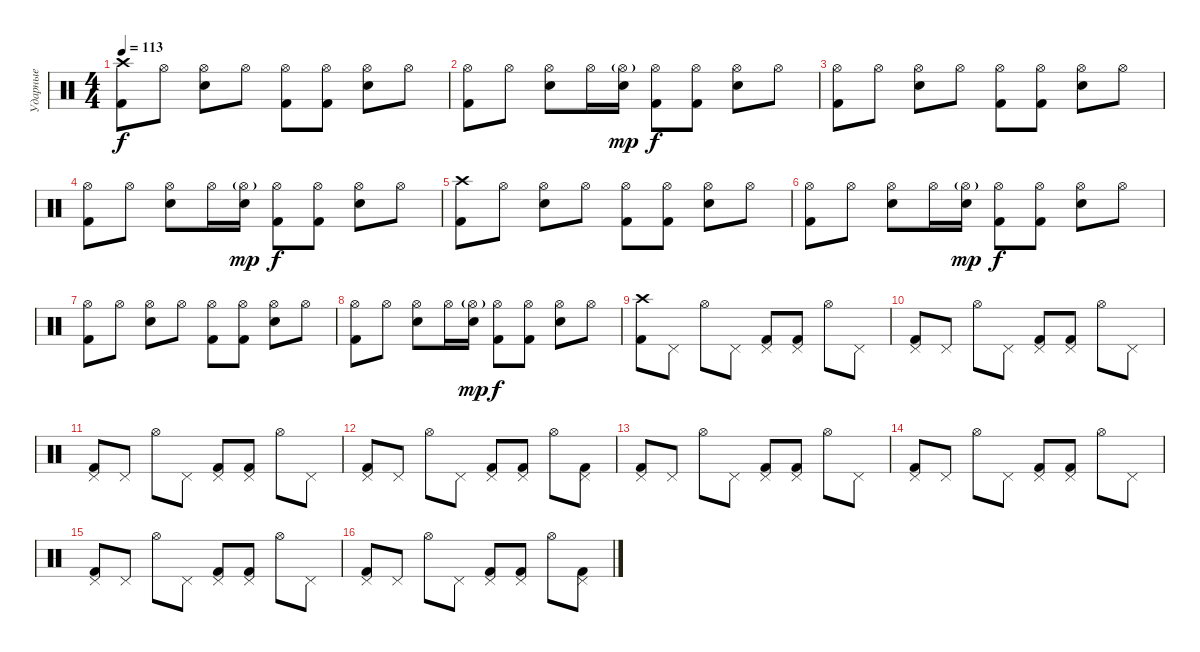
\track ("Ударные" "Ударные") {instrument percussion}
\staff {score}
\articulation defaults
\ts (4 4)
\tempo 113
\clef neutral
\ks c
("Crash high (hit)" "Kick (hit) 2").8{dy f} "Hi-Hat (open)".8 ("Hi-Hat (open)" "Snare (hit) 2").8 "Hi-Hat (open)".8 ("Hi-Hat (open)" "Kick (hit) 2").8 ("Hi-Hat (open)" "Kick (hit) 2").8 ("Hi-Hat (open)" "Snare (hit) 2").8 "Hi-Hat (open)".8 |
("Hi-Hat (open)" "Kick (hit) 2").8 "Hi-Hat (open)".8 ("Hi-Hat (open)" "Snare (hit) 2").8 "Hi-Hat (open)".16 ("Hi-Hat (open)"{g} "Snare (hit) 2").16{dy mp} ("Hi-Hat (open)" "Kick (hit) 2").8{dy f} ("Hi-Hat (open)" "Kick (hit) 2").8 ("Hi-Hat (open)" "Snare (hit) 2").8 "Hi-Hat (open)".8 |
("Hi-Hat (open)" "Kick (hit) 2").8 "Hi-Hat (open)".8 ("Hi-Hat (open)" "Snare (hit) 2").8 "Hi-Hat (open)".8 ("Hi-Hat (open)" "Kick (hit) 2").8 ("Hi-Hat (open)" "Kick (hit) 2").8 ("Hi-Hat (open)" "Snare (hit) 2").8 "Hi-Hat (open)".8 |
("Hi-Hat (open)" "Kick (hit) 2").8 "Hi-Hat (open)".8 ("Hi-Hat (open)" "Snare (hit) 2").8 "Hi-Hat (open)".16 ("Hi-Hat (open)"{g} "Snare (hit) 2").16{dy mp} ("Hi-Hat (open)" "Kick (hit) 2").8{dy f} ("Hi-Hat (open)" "Kick (hit) 2").8 ("Hi-Hat (open)" "Snare (hit) 2").8 "Hi-Hat (open)".8 |
("Crash high (hit)" "Kick (hit) 2").8 "Hi-Hat (open)".8 ("Hi-Hat (open)" "Snare (hit) 2").8 "Hi-Hat (open)".8 ("Hi-Hat (open)" "Kick (hit) 2").8 ("Hi-Hat (open)" "Kick (hit) 2").8 ("Hi-Hat (open)" "Snare (hit) 2").8 "Hi-Hat (open)".8 |
("Hi-Hat (open)" "Kick (hit) 2").8 "Hi-Hat (open)".8 ("Hi-Hat (open)" "Snare (hit) 2").8 "Hi-Hat (open)".16 ("Hi-Hat (open)"{g} "Snare (hit) 2").16{dy mp} ("Hi-Hat (open)" "Kick (hit) 2").8{dy f} ("Hi-Hat (open)" "Kick (hit) 2").8 ("Hi-Hat (open)" "Snare (hit) 2").8 "Hi-Hat (open)".8 |
("Hi-Hat (open)" "Kick (hit) 2").8 "Hi-Hat (open)".8 ("Hi-Hat (open)" "Snare (hit) 2").8 "Hi-Hat (open)".8 ("Hi-Hat (open)" "Kick (hit) 2").8 ("Hi-Hat (open)" "Kick (hit) 2").8 ("Hi-Hat (open)" "Snare (hit) 2").8 "Hi-Hat (open)".8 |
("Hi-Hat (open)" "Kick (hit) 2").8 "Hi-Hat (open)".8 ("Hi-Hat (open)" "Snare (hit) 2").8 "Hi-Hat (open)".16 ("Hi-Hat (open)"{g} "Snare (hit) 2").16{dy mp} ("Hi-Hat (open)" "Kick (hit) 2").8{dy f} ("Hi-Hat (open)" "Kick (hit) 2").8 ("Hi-Hat (open)" "Snare (hit) 2").8 "Hi-Hat (open)".8 |
("Crash high (hit)" "Kick (hit) 2").8 "Pedal Hi-Hat (hit)".8 "Hi-Hat (open)".8 "Pedal Hi-Hat (hit)".8 ("Pedal Hi-Hat (hit)" "Kick (hit) 2").8 ("Pedal Hi-Hat (hit)" "Kick (hit) 2").8 "Hi-Hat (open)".8 "Pedal Hi-Hat (hit)".8 |
("Pedal Hi-Hat (hit)" "Kick (hit) 2").8 "Pedal Hi-Hat (hit)".8 "Hi-Hat (open)".8 "Pedal Hi-Hat (hit)".8 ("Pedal Hi-Hat (hit)" "Kick (hit) 2").8 ("Pedal Hi-Hat (hit)" "Kick (hit) 2").8 "Hi-Hat (open)".8 "Pedal Hi-Hat (hit)".8 |
("Pedal Hi-Hat (hit)" "Kick (hit) 2").8 "Pedal Hi-Hat (hit)".8 "Hi-Hat (open)".8 "Pedal Hi-Hat (hit)".8 ("Pedal Hi-Hat (hit)" "Kick (hit) 2").8 ("Pedal Hi-Hat (hit)" "Kick (hit) 2").8 "Hi-Hat (open)".8 "Pedal Hi-Hat (hit)".8 |
("Pedal Hi-Hat (hit)" "Kick (hit) 2").8 "Pedal Hi-Hat (hit)".8 "Hi-Hat (open)".8 "Pedal Hi-Hat (hit)".8 ("Pedal Hi-Hat (hit)" "Kick (hit) 2").8 ("Pedal Hi-Hat (hit)" "Kick (hit) 2").8 "Hi-Hat (open)".8 ("Pedal Hi-Hat (hit)" "Kick (hit) 2").8 |
("Pedal Hi-Hat (hit)" "Kick (hit) 2").8 "Pedal Hi-Hat (hit)".8 "Hi-Hat (open)".8 "Pedal Hi-Hat (hit)".8 ("Pedal Hi-Hat (hit)" "Kick (hit) 2").8 ("Pedal Hi-Hat (hit)" "Kick (hit) 2").8 "Hi-Hat (open)".8 "Pedal Hi-Hat (hit)".8 |
("Pedal Hi-Hat (hit)" "Kick (hit) 2").8 "Pedal Hi-Hat (hit)".8 "Hi-Hat (open)".8 "Pedal Hi-Hat (hit)".8 ("Pedal Hi-Hat (hit)" "Kick (hit) 2").8 ("Pedal Hi-Hat (hit)" "Kick (hit) 2").8 "Hi-Hat (open)".8 "Pedal Hi-Hat (hit)".8 |
("Pedal Hi-Hat (hit)" "Kick (hit) 2").8 "Pedal Hi-Hat (hit)".8 "Hi-Hat (open)".8 "Pedal Hi-Hat (hit)".8 ("Pedal Hi-Hat (hit)" "Kick (hit) 2").8 ("Pedal Hi-Hat (hit)" "Kick (hit) 2").8 "Hi-Hat (open)".8 "Pedal Hi-Hat (hit)".8 |
("Pedal Hi-Hat (hit)" "Kick (hit) 2").8 "Pedal Hi-Hat (hit)".8 "Hi-Hat (open)".8 "Pedal Hi-Hat (hit)".8 ("Pedal Hi-Hat (hit)" "Kick (hit) 2").8 ("Pedal Hi-Hat (hit)" "Kick (hit) 2").8 "Hi-Hat (open)".8 ("Pedal Hi-Hat (hit)" "Kick (hit) 2").8
